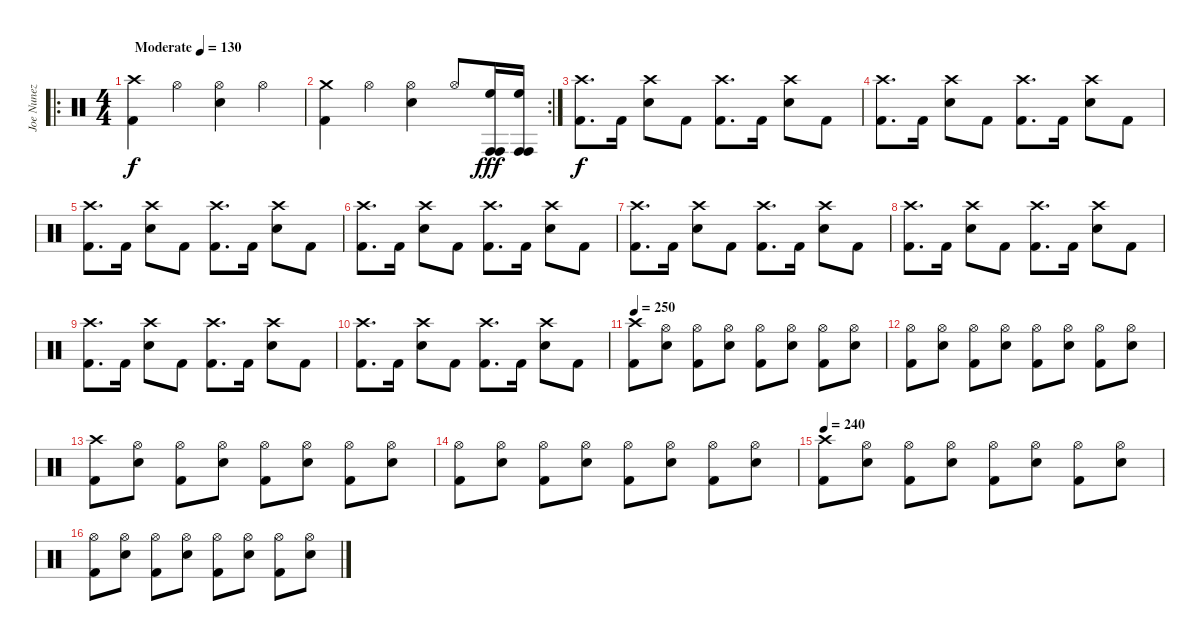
\track ("Joe Nunez" "Joe Nunez") {instrument percussion}
\staff {score}
\articulation defaults
\ro
\ts (4 4)
\tempo (130 "Moderate")
\clef neutral
\ks c
("Crash high (hit)" "Kick (hit) 2").4{dy f} "Hi-Hat (open)".4 ("Hi-Hat (open)" "Electric Snare (hit)").4 "Hi-Hat (open)".4 |
\rc 2
("Crash medium (hit)" "Kick (hit) 2").4 "Hi-Hat (open)".4 ("Hi-Hat (open)" "Electric Snare (hit)").4 "Hi-Hat (open)".8 ("Conga high (hit)" "Conga high (hit)" "High Floor Tom (hit)").16{dy fff} ("Conga high (hit)" "Conga high (hit)" "High Floor Tom (hit)").16 |
("Crash high (hit)" "Kick (hit) 2").8{d dy f} "Kick (hit) 2".16 ("Crash high (hit)" "Electric Snare (hit)").8 "Kick (hit) 2".8 ("Crash high (hit)" "Kick (hit) 2").8{d} "Kick (hit) 2".16 ("Crash high (hit)" "Electric Snare (hit)").8 "Kick (hit) 2".8 |
("Crash high (hit)" "Kick (hit) 2").8{d} "Kick (hit) 2".16 ("Crash high (hit)" "Electric Snare (hit)").8 "Kick (hit) 2".8 ("Crash high (hit)" "Kick (hit) 2").8{d} "Kick (hit) 2".16 ("Crash high (hit)" "Electric Snare (hit)").8 "Kick (hit) 2".8 |
("Crash high (hit)" "Kick (hit) 2").8{d} "Kick (hit) 2".16 ("Crash high (hit)" "Electric Snare (hit)").8 "Kick (hit) 2".8 ("Crash high (hit)" "Kick (hit) 2").8{d} "Kick (hit) 2".16 ("Crash high (hit)" "Electric Snare (hit)").8 "Kick (hit) 2".8 |
("Crash high (hit)" "Kick (hit) 2").8{d} "Kick (hit) 2".16 ("Crash high (hit)" "Electric Snare (hit)").8 "Kick (hit) 2".8 ("Crash high (hit)" "Kick (hit) 2").8{d} "Kick (hit) 2".16 ("Crash high (hit)" "Electric Snare (hit)").8 "Kick (hit) 2".8 |
("Crash high (hit)" "Kick (hit) 2").8{d} "Kick (hit) 2".16 ("Crash high (hit)" "Electric Snare (hit)").8 "Kick (hit) 2".8 ("Crash high (hit)" "Kick (hit) 2").8{d} "Kick (hit) 2".16 ("Crash high (hit)" "Electric Snare (hit)").8 "Kick (hit) 2".8 |
("Crash high (hit)" "Kick (hit) 2").8{d} "Kick (hit) 2".16 ("Crash high (hit)" "Electric Snare (hit)").8 "Kick (hit) 2".8 ("Crash high (hit)" "Kick (hit) 2").8{d} "Kick (hit) 2".16 ("Crash high (hit)" "Electric Snare (hit)").8 "Kick (hit) 2".8 |
("Crash high (hit)" "Kick (hit) 2").8{d} "Kick (hit) 2".16 ("Crash high (hit)" "Electric Snare (hit)").8 "Kick (hit) 2".8 ("Crash high (hit)" "Kick (hit) 2").8{d} "Kick (hit) 2".16 ("Crash high (hit)" "Electric Snare (hit)").8 "Kick (hit) 2".8 |
("Crash high (hit)" "Kick (hit) 2").8{d} "Kick (hit) 2".16 ("Crash high (hit)" "Electric Snare (hit)").8 "Kick (hit) 2".8 ("Crash high (hit)" "Kick (hit) 2").8{d} "Kick (hit) 2".16 ("Crash high (hit)" "Electric Snare (hit)").8 "Kick (hit) 2".8 |
\tempo 250
("Crash high (hit)" "Kick (hit) 2").8 ("Hi-Hat (open)" "Electric Snare (hit)").8 ("Hi-Hat (open)" "Kick (hit) 2").8 ("Hi-Hat (open)" "Electric Snare (hit)").8 ("Hi-Hat (open)" "Kick (hit) 2").8 ("Hi-Hat (open)" "Electric Snare (hit)").8 ("Hi-Hat (open)" "Kick (hit) 2").8 ("Hi-Hat (open)" "Electric Snare (hit)").8 |
("Hi-Hat (open)" "Kick (hit) 2").8 ("Hi-Hat (open)" "Electric Snare (hit)").8 ("Hi-Hat (open)" "Kick (hit) 2").8 ("Hi-Hat (open)" "Electric Snare (hit)").8 ("Hi-Hat (open)" "Kick (hit) 2").8 ("Hi-Hat (open)" "Electric Snare (hit)").8 ("Hi-Hat (open)" "Kick (hit) 2").8 ("Hi-Hat (open)" "Electric Snare (hit)").8 |
("Crash high (hit)" "Kick (hit) 2").8 ("Hi-Hat (open)" "Electric Snare (hit)").8 ("Hi-Hat (open)" "Kick (hit) 2").8 ("Hi-Hat (open)" "Electric Snare (hit)").8 ("Hi-Hat (open)" "Kick (hit) 2").8 ("Hi-Hat (open)" "Electric Snare (hit)").8 ("Hi-Hat (open)" "Kick (hit) 2").8 ("Hi-Hat (open)" "Electric Snare (hit)").8 |
("Hi-Hat (open)" "Kick (hit) 2").8 ("Hi-Hat (open)" "Electric Snare (hit)").8 ("Hi-Hat (open)" "Kick (hit) 2").8 ("Hi-Hat (open)" "Electric Snare (hit)").8 ("Hi-Hat (open)" "Kick (hit) 2").8 ("Hi-Hat (open)" "Electric Snare (hit)").8 ("Hi-Hat (open)" "Kick (hit) 2").8 ("Hi-Hat (open)" "Electric Snare (hit)").8 |
\tempo 240
("Crash high (hit)" "Kick (hit) 2").8 ("Hi-Hat (open)" "Electric Snare (hit)").8 ("Hi-Hat (open)" "Kick (hit) 2").8 ("Hi-Hat (open)" "Electric Snare (hit)").8 ("Hi-Hat (open)" "Kick (hit) 2").8 ("Hi-Hat (open)" "Electric Snare (hit)").8 ("Hi-Hat (open)" "Kick (hit) 2").8 ("Hi-Hat (open)" "Electric Snare (hit)").8 |
("Hi-Hat (open)" "Kick (hit) 2").8 ("Hi-Hat (open)" "Electric Snare (hit)").8 ("Hi-Hat (open)" "Kick (hit) 2").8 ("Hi-Hat (open)" "Electric Snare (hit)").8 ("Hi-Hat (open)" "Kick (hit) 2").8 ("Hi-Hat (open)" "Electric Snare (hit)").8 ("Hi-Hat (open)" "Kick (hit) 2").8 ("Hi-Hat (open)" "Electric Snare (hit)").8
